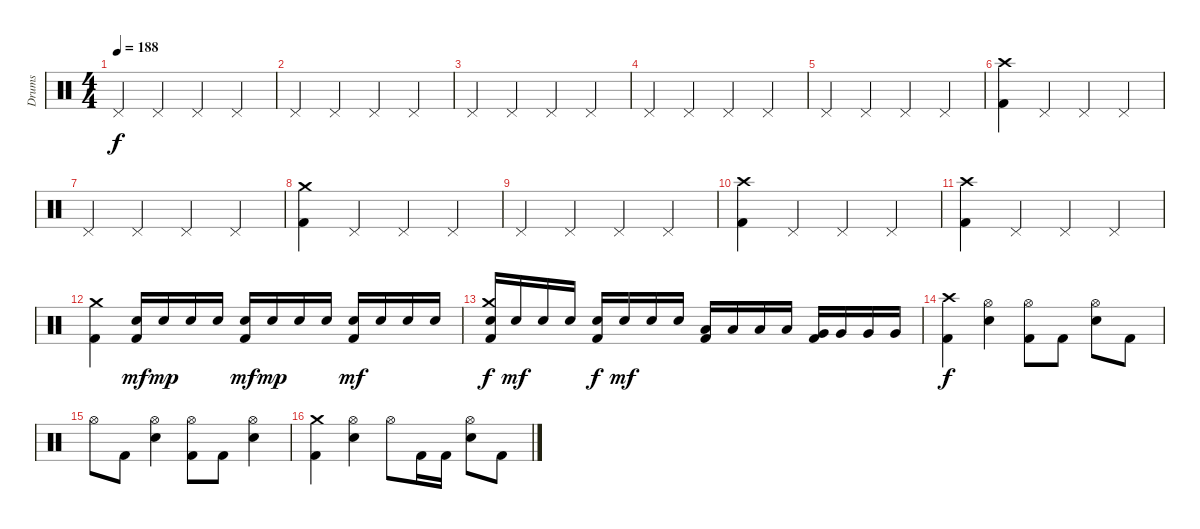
\track ("Drums" "Drums") {instrument percussion}
\staff {score}
\articulation defaults
\ts (4 4)
\tempo 188
\clef neutral
\ks c "Pedal Hi-Hat (hit)".4{dy f} "Pedal Hi-Hat (hit)".4 "Pedal Hi-Hat (hit)".4 "Pedal Hi-Hat (hit)".4
|
"Pedal Hi-Hat (hit)".4 "Pedal Hi-Hat (hit)".4 "Pedal Hi-Hat (hit)".4 "Pedal Hi-Hat (hit)".4 |
"Pedal Hi-Hat (hit)".4 "Pedal Hi-Hat (hit)".4 "Pedal Hi-Hat (hit)".4 "Pedal Hi-Hat (hit)".4 |
"Pedal Hi-Hat (hit)".4 "Pedal Hi-Hat (hit)".4 "Pedal Hi-Hat (hit)".4 "Pedal Hi-Hat (hit)".4 |
"Pedal Hi-Hat (hit)".4 "Pedal Hi-Hat (hit)".4 "Pedal Hi-Hat (hit)".4 "Pedal Hi-Hat (hit)".4 |
("Crash high (hit)" "Kick (hit) 2").4 "Pedal Hi-Hat (hit)".4 "Pedal Hi-Hat (hit)".4 "Pedal Hi-Hat (hit)".4 |
"Pedal Hi-Hat (hit)".4 "Pedal Hi-Hat (hit)".4 "Pedal Hi-Hat (hit)".4 "Pedal Hi-Hat (hit)".4 |
("Crash medium (hit)" "Kick (hit) 2").4 "Pedal Hi-Hat (hit)".4 "Pedal Hi-Hat (hit)".4 "Pedal Hi-Hat (hit)".4 |
"Pedal Hi-Hat (hit)".4 "Pedal Hi-Hat (hit)".4 "Pedal Hi-Hat (hit)".4 "Pedal Hi-Hat (hit)".4 |
("Crash high (hit)" "Kick (hit) 2").4 "Pedal Hi-Hat (hit)".4 "Pedal Hi-Hat (hit)".4 "Pedal Hi-Hat (hit)".4 |
("Crash high (hit)" "Kick (hit) 2").4 "Pedal Hi-Hat (hit)".4 "Pedal Hi-Hat (hit)".4 "Pedal Hi-Hat (hit)".4 |
("Crash medium (hit)" "Kick (hit) 2").4 ("Electric Snare (hit)" "Kick (hit) 2").16{dy mf} "Electric Snare (hit)".16{dy mp} "Electric Snare (hit)".16 "Electric Snare (hit)".16 ("Electric Snare (hit)" "Kick (hit) 2").16{dy mf} "Electric Snare (hit)".16{dy mp} "Electric Snare (hit)".16 "Electric Snare (hit)".16 ("Electric Snare (hit)" "Kick (hit) 2").16{dy mf} "Electric Snare (hit)".16 "Electric Snare (hit)".16 "Electric Snare (hit)".16 |
("Crash medium (hit)" "Electric Snare (hit)" "Kick (hit) 2").16{dy f} "Electric Snare (hit)".16{dy mf} "Electric Snare (hit)".16 "Electric Snare (hit)".16 ("Electric Snare (hit)" "Kick (hit) 2").16{dy f} "Electric Snare (hit)".16{dy mf} "Electric Snare (hit)".16 "Electric Snare (hit)".16 ("Low Tom (hit)" "Kick (hit) 2").16 "Low Tom (hit)".16 "Low Tom (hit)".16 "Low Tom (hit)".16 ("Very Low Tom (hit)" "Kick (hit) 2").16 "Very Low Tom (hit)".16 "Very Low Tom (hit)".16 "Very Low Tom (hit)".16 |
("Crash high (hit)" "Kick (hit) 2").4{dy f} ("Hi-Hat (open)" "Electric Snare (hit)").4 ("Hi-Hat (open)" "Kick (hit) 2").8 "Kick (hit) 2".8 ("Hi-Hat (open)" "Electric Snare (hit)").8 "Kick (hit) 2".8 |
"Hi-Hat (open)".8 "Kick (hit) 2".8 ("Hi-Hat (open)" "Electric Snare (hit)").4 ("Hi-Hat (open)" "Kick (hit) 2").8 "Kick (hit) 2".8 ("Hi-Hat (open)" "Electric Snare (hit)").4 |
("Crash medium (hit)" "Kick (hit) 2").4 ("Hi-Hat (open)" "Electric Snare (hit)").4 "Hi-Hat (open)".8 "Kick (hit) 2".16 "Kick (hit) 2".16 ("Hi-Hat (open)" "Electric Snare (hit)").8 "Kick (hit) 2".8
